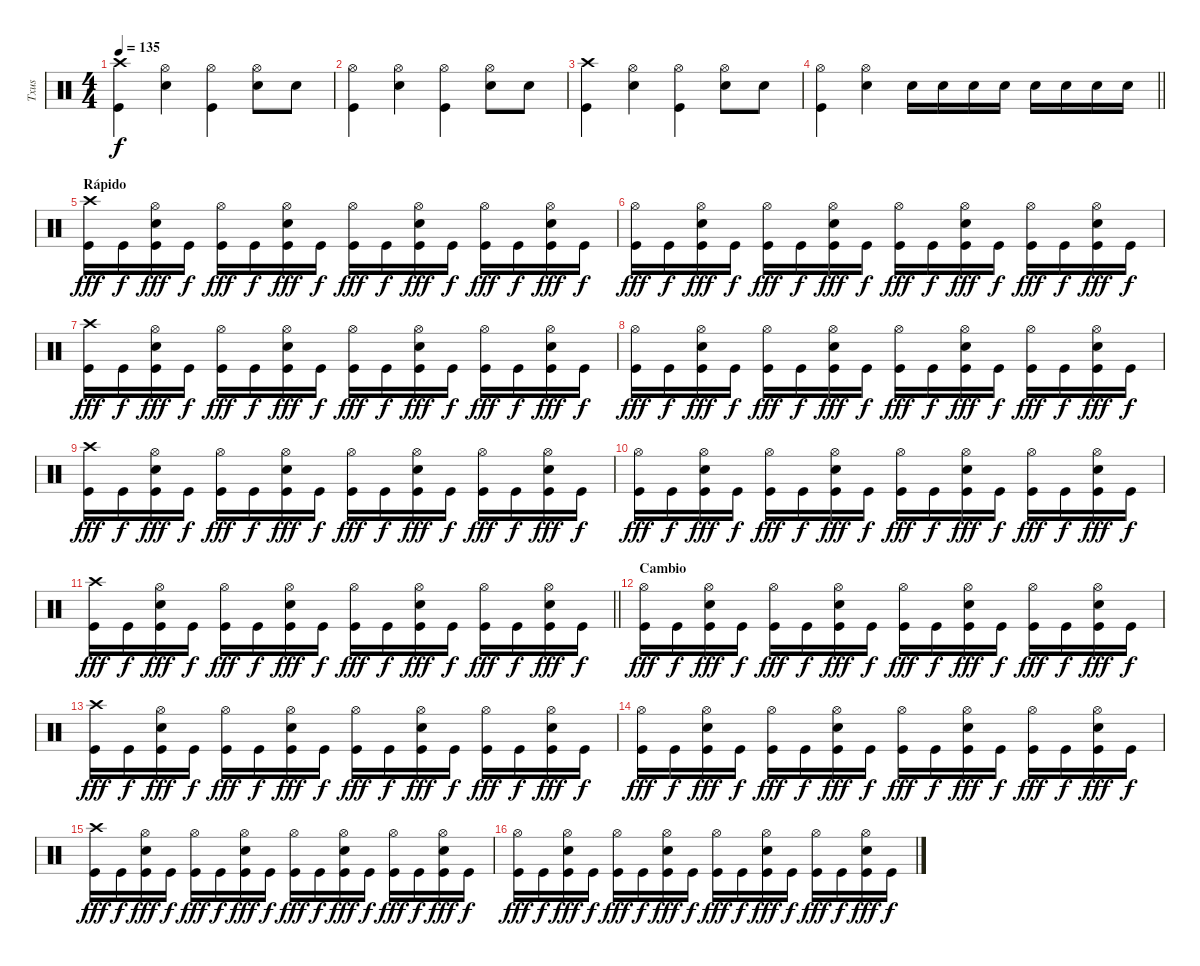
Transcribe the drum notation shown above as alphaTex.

\track ("Txus" "Txus") {instrument percussion}
\staff {score}
\articulation defaults
\ts (4 4)
\tempo 135
\clef neutral
\ks c
("Crash high (hit)" "Kick (hit)").4{dy f} ("Hi-Hat (open)" "Electric Snare (hit)").4 ("Hi-Hat (open)" "Kick (hit)").4 ("Hi-Hat (open)" "Electric Snare (hit)").8 "Electric Snare (hit)".8 |
("Hi-Hat (open)" "Kick (hit)").4 ("Hi-Hat (open)" "Electric Snare (hit)").4 ("Hi-Hat (open)" "Kick (hit)").4 ("Hi-Hat (open)" "Electric Snare (hit)").8 "Electric Snare (hit)".8 |
("Crash high (hit)" "Kick (hit)").4 ("Hi-Hat (open)" "Electric Snare (hit)").4 ("Hi-Hat (open)" "Kick (hit)").4 ("Hi-Hat (open)" "Electric Snare (hit)").8 "Electric Snare (hit)".8 |
\barLineRight lightlight
("Hi-Hat (open)" "Kick (hit)").4 ("Hi-Hat (open)" "Electric Snare (hit)").4 "Electric Snare (hit)".16 "Electric Snare (hit)".16 "Electric Snare (hit)".16 "Electric Snare (hit)".16 "Electric Snare (hit)".16 "Electric Snare (hit)".16 "Electric Snare (hit)".16 "Electric Snare (hit)".16 |
\section ("" "Rápido")
("Crash high (hit)" "Kick (hit)").16{dy fff} "Kick (hit)".16{dy f} ("Hi-Hat (open)" "Electric Snare (hit)" "Kick (hit)").16{dy fff} "Kick (hit)".16{dy f} ("Hi-Hat (open)" "Kick (hit)").16{dy fff} "Kick (hit)".16{dy f} ("Hi-Hat (open)" "Electric Snare (hit)" "Kick (hit)").16{dy fff} "Kick (hit)".16{dy f} ("Hi-Hat (open)" "Kick (hit)").16{dy fff} "Kick (hit)".16{dy f} ("Hi-Hat (open)" "Electric Snare (hit)" "Kick (hit)").16{dy fff} "Kick (hit)".16{dy f} ("Hi-Hat (open)" "Kick (hit)").16{dy fff} "Kick (hit)".16{dy f} ("Hi-Hat (open)" "Electric Snare (hit)" "Kick (hit)").16{dy fff} "Kick (hit)".16{dy f} |
("Hi-Hat (open)" "Kick (hit)").16{dy fff} "Kick (hit)".16{dy f} ("Hi-Hat (open)" "Electric Snare (hit)" "Kick (hit)").16{dy fff} "Kick (hit)".16{dy f} ("Hi-Hat (open)" "Kick (hit)").16{dy fff} "Kick (hit)".16{dy f} ("Hi-Hat (open)" "Electric Snare (hit)" "Kick (hit)").16{dy fff} "Kick (hit)".16{dy f} ("Hi-Hat (open)" "Kick (hit)").16{dy fff} "Kick (hit)".16{dy f} ("Hi-Hat (open)" "Electric Snare (hit)" "Kick (hit)").16{dy fff} "Kick (hit)".16{dy f} ("Hi-Hat (open)" "Kick (hit)").16{dy fff} "Kick (hit)".16{dy f} ("Hi-Hat (open)" "Electric Snare (hit)" "Kick (hit)").16{dy fff} "Kick (hit)".16{dy f} |
("Crash high (hit)" "Kick (hit)").16{dy fff} "Kick (hit)".16{dy f} ("Hi-Hat (open)" "Electric Snare (hit)" "Kick (hit)").16{dy fff} "Kick (hit)".16{dy f} ("Hi-Hat (open)" "Kick (hit)").16{dy fff} "Kick (hit)".16{dy f} ("Hi-Hat (open)" "Electric Snare (hit)" "Kick (hit)").16{dy fff} "Kick (hit)".16{dy f} ("Hi-Hat (open)" "Kick (hit)").16{dy fff} "Kick (hit)".16{dy f} ("Hi-Hat (open)" "Electric Snare (hit)" "Kick (hit)").16{dy fff} "Kick (hit)".16{dy f} ("Hi-Hat (open)" "Kick (hit)").16{dy fff} "Kick (hit)".16{dy f} ("Hi-Hat (open)" "Electric Snare (hit)" "Kick (hit)").16{dy fff} "Kick (hit)".16{dy f} |
("Hi-Hat (open)" "Kick (hit)").16{dy fff} "Kick (hit)".16{dy f} ("Hi-Hat (open)" "Electric Snare (hit)" "Kick (hit)").16{dy fff} "Kick (hit)".16{dy f} ("Hi-Hat (open)" "Kick (hit)").16{dy fff} "Kick (hit)".16{dy f} ("Hi-Hat (open)" "Electric Snare (hit)" "Kick (hit)").16{dy fff} "Kick (hit)".16{dy f} ("Hi-Hat (open)" "Kick (hit)").16{dy fff} "Kick (hit)".16{dy f} ("Hi-Hat (open)" "Electric Snare (hit)" "Kick (hit)").16{dy fff} "Kick (hit)".16{dy f} ("Hi-Hat (open)" "Kick (hit)").16{dy fff} "Kick (hit)".16{dy f} ("Hi-Hat (open)" "Electric Snare (hit)" "Kick (hit)").16{dy fff} "Kick (hit)".16{dy f} |
("Crash high (hit)" "Kick (hit)").16{dy fff} "Kick (hit)".16{dy f} ("Hi-Hat (open)" "Electric Snare (hit)" "Kick (hit)").16{dy fff} "Kick (hit)".16{dy f} ("Hi-Hat (open)" "Kick (hit)").16{dy fff} "Kick (hit)".16{dy f} ("Hi-Hat (open)" "Electric Snare (hit)" "Kick (hit)").16{dy fff} "Kick (hit)".16{dy f} ("Hi-Hat (open)" "Kick (hit)").16{dy fff} "Kick (hit)".16{dy f} ("Hi-Hat (open)" "Electric Snare (hit)" "Kick (hit)").16{dy fff} "Kick (hit)".16{dy f} ("Hi-Hat (open)" "Kick (hit)").16{dy fff} "Kick (hit)".16{dy f} ("Hi-Hat (open)" "Electric Snare (hit)" "Kick (hit)").16{dy fff} "Kick (hit)".16{dy f} |
("Hi-Hat (open)" "Kick (hit)").16{dy fff} "Kick (hit)".16{dy f} ("Hi-Hat (open)" "Electric Snare (hit)" "Kick (hit)").16{dy fff} "Kick (hit)".16{dy f} ("Hi-Hat (open)" "Kick (hit)").16{dy fff} "Kick (hit)".16{dy f} ("Hi-Hat (open)" "Electric Snare (hit)" "Kick (hit)").16{dy fff} "Kick (hit)".16{dy f} ("Hi-Hat (open)" "Kick (hit)").16{dy fff} "Kick (hit)".16{dy f} ("Hi-Hat (open)" "Electric Snare (hit)" "Kick (hit)").16{dy fff} "Kick (hit)".16{dy f} ("Hi-Hat (open)" "Kick (hit)").16{dy fff} "Kick (hit)".16{dy f} ("Hi-Hat (open)" "Electric Snare (hit)" "Kick (hit)").16{dy fff} "Kick (hit)".16{dy f} |
\barLineRight lightlight
("Crash high (hit)" "Kick (hit)").16{dy fff} "Kick (hit)".16{dy f} ("Hi-Hat (open)" "Electric Snare (hit)" "Kick (hit)").16{dy fff} "Kick (hit)".16{dy f} ("Hi-Hat (open)" "Kick (hit)").16{dy fff} "Kick (hit)".16{dy f} ("Hi-Hat (open)" "Electric Snare (hit)" "Kick (hit)").16{dy fff} "Kick (hit)".16{dy f} ("Hi-Hat (open)" "Kick (hit)").16{dy fff} "Kick (hit)".16{dy f} ("Hi-Hat (open)" "Electric Snare (hit)" "Kick (hit)").16{dy fff} "Kick (hit)".16{dy f} ("Hi-Hat (open)" "Kick (hit)").16{dy fff} "Kick (hit)".16{dy f} ("Hi-Hat (open)" "Electric Snare (hit)" "Kick (hit)").16{dy fff} "Kick (hit)".16{dy f} |
\section ("" "Cambio")
("Hi-Hat (open)" "Kick (hit)").16{dy fff} "Kick (hit)".16{dy f} ("Hi-Hat (open)" "Electric Snare (hit)" "Kick (hit)").16{dy fff} "Kick (hit)".16{dy f} ("Hi-Hat (open)" "Kick (hit)").16{dy fff} "Kick (hit)".16{dy f} ("Hi-Hat (open)" "Electric Snare (hit)" "Kick (hit)").16{dy fff} "Kick (hit)".16{dy f} ("Hi-Hat (open)" "Kick (hit)").16{dy fff} "Kick (hit)".16{dy f} ("Hi-Hat (open)" "Electric Snare (hit)" "Kick (hit)").16{dy fff} "Kick (hit)".16{dy f} ("Hi-Hat (open)" "Kick (hit)").16{dy fff} "Kick (hit)".16{dy f} ("Hi-Hat (open)" "Electric Snare (hit)" "Kick (hit)").16{dy fff} "Kick (hit)".16{dy f} |
("Crash high (hit)" "Kick (hit)").16{dy fff} "Kick (hit)".16{dy f} ("Hi-Hat (open)" "Electric Snare (hit)" "Kick (hit)").16{dy fff} "Kick (hit)".16{dy f} ("Hi-Hat (open)" "Kick (hit)").16{dy fff} "Kick (hit)".16{dy f} ("Hi-Hat (open)" "Electric Snare (hit)" "Kick (hit)").16{dy fff} "Kick (hit)".16{dy f} ("Hi-Hat (open)" "Kick (hit)").16{dy fff} "Kick (hit)".16{dy f} ("Hi-Hat (open)" "Electric Snare (hit)" "Kick (hit)").16{dy fff} "Kick (hit)".16{dy f} ("Hi-Hat (open)" "Kick (hit)").16{dy fff} "Kick (hit)".16{dy f} ("Hi-Hat (open)" "Electric Snare (hit)" "Kick (hit)").16{dy fff} "Kick (hit)".16{dy f} |
("Hi-Hat (open)" "Kick (hit)").16{dy fff} "Kick (hit)".16{dy f} ("Hi-Hat (open)" "Electric Snare (hit)" "Kick (hit)").16{dy fff} "Kick (hit)".16{dy f} ("Hi-Hat (open)" "Kick (hit)").16{dy fff} "Kick (hit)".16{dy f} ("Hi-Hat (open)" "Electric Snare (hit)" "Kick (hit)").16{dy fff} "Kick (hit)".16{dy f} ("Hi-Hat (open)" "Kick (hit)").16{dy fff} "Kick (hit)".16{dy f} ("Hi-Hat (open)" "Electric Snare (hit)" "Kick (hit)").16{dy fff} "Kick (hit)".16{dy f} ("Hi-Hat (open)" "Kick (hit)").16{dy fff} "Kick (hit)".16{dy f} ("Hi-Hat (open)" "Electric Snare (hit)" "Kick (hit)").16{dy fff} "Kick (hit)".16{dy f} |
("Crash high (hit)" "Kick (hit)").16{dy fff} "Kick (hit)".16{dy f} ("Hi-Hat (open)" "Electric Snare (hit)" "Kick (hit)").16{dy fff} "Kick (hit)".16{dy f} ("Hi-Hat (open)" "Kick (hit)").16{dy fff} "Kick (hit)".16{dy f} ("Hi-Hat (open)" "Electric Snare (hit)" "Kick (hit)").16{dy fff} "Kick (hit)".16{dy f} ("Hi-Hat (open)" "Kick (hit)").16{dy fff} "Kick (hit)".16{dy f} ("Hi-Hat (open)" "Electric Snare (hit)" "Kick (hit)").16{dy fff} "Kick (hit)".16{dy f} ("Hi-Hat (open)" "Kick (hit)").16{dy fff} "Kick (hit)".16{dy f} ("Hi-Hat (open)" "Electric Snare (hit)" "Kick (hit)").16{dy fff} "Kick (hit)".16{dy f} |
("Hi-Hat (open)" "Kick (hit)").16{dy fff} "Kick (hit)".16{dy f} ("Hi-Hat (open)" "Electric Snare (hit)" "Kick (hit)").16{dy fff} "Kick (hit)".16{dy f} ("Hi-Hat (open)" "Kick (hit)").16{dy fff} "Kick (hit)".16{dy f} ("Hi-Hat (open)" "Electric Snare (hit)" "Kick (hit)").16{dy fff} "Kick (hit)".16{dy f} ("Hi-Hat (open)" "Kick (hit)").16{dy fff} "Kick (hit)".16{dy f} ("Hi-Hat (open)" "Electric Snare (hit)" "Kick (hit)").16{dy fff} "Kick (hit)".16{dy f} ("Hi-Hat (open)" "Kick (hit)").16{dy fff} "Kick (hit)".16{dy f} ("Hi-Hat (open)" "Electric Snare (hit)" "Kick (hit)").16{dy fff} "Kick (hit)".16{dy f}
